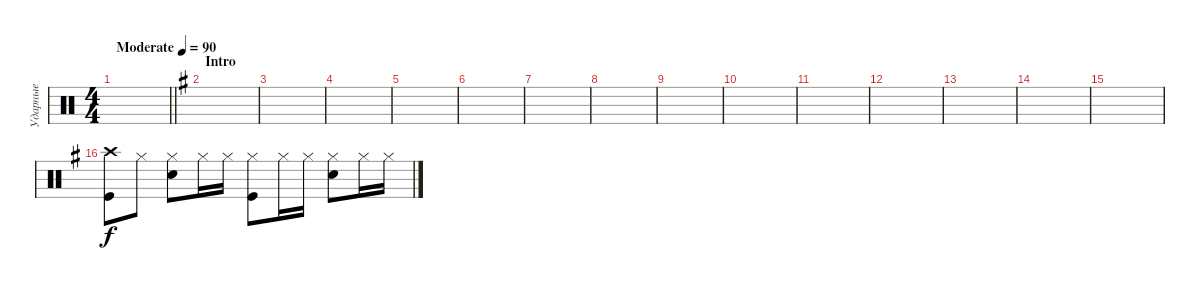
\track ("Ударные" "Ударные") {instrument percussion}
\staff {score}
\articulation defaults
\ts (4 4)
\tempo (90 "Moderate")
\clef neutral
\barLineRight lightlight
\ks c
|
\section ("" "Intro")
\ks eminor
|
|
|
|
|
|
|
|
|
|
|
|
|
|
("Kick (hit)" "Crash high (hit)").8 "Hi-Hat (closed)".8 ("Hi-Hat (closed)" "Snare (hit) 2").8 "Hi-Hat (closed)".16 "Hi-Hat (closed)".16 ("Hi-Hat (closed)" "Kick (hit)").8 "Hi-Hat (closed)".16 "Hi-Hat (closed)".16 ("Hi-Hat (closed)" "Snare (hit) 2").8 "Hi-Hat (closed)".16 "Hi-Hat (closed)".16
